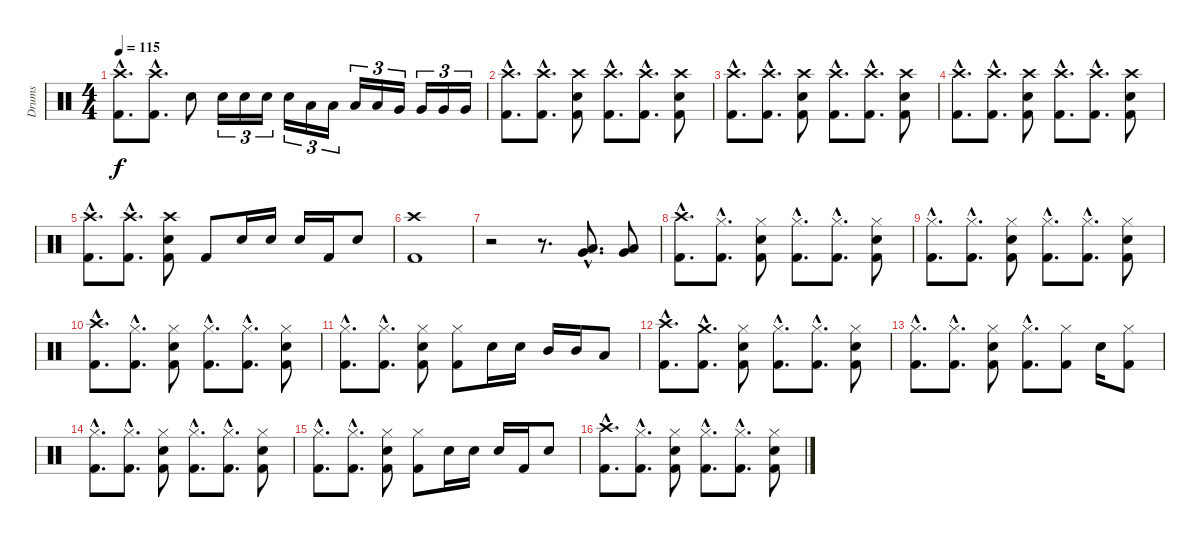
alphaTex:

\track ("Drums" "Drums") {instrument percussion}
\staff {score}
\articulation defaults
\ts (4 4)
\tempo 115
\clef neutral
\ks c
("Crash high (hit)"{hac} "Kick (hit) 2"{hac}).8{d dy f} ("Crash high (hit)"{hac} "Kick (hit) 2"{hac}).8{d} "Electric Snare (hit)".8 "Electric Snare (hit)".16{tu (3 2)} "Electric Snare (hit)".16{tu (3 2)} "Electric Snare (hit)".16{tu (3 2)} "Electric Snare (hit)".16{tu (3 2)} "Low Tom (hit)".16{tu (3 2)} "Low Tom (hit)".16{tu (3 2)} "Low Tom (hit)".16{tu (3 2)} "Low Tom (hit)".16{tu (3 2)} "Very Low Tom (hit)".16{tu (3 2)} "Very Low Tom (hit)".16{tu (3 2)} "Very Low Tom (hit)".16{tu (3 2)} "Very Low Tom (hit)".16{tu (3 2)} |
("Crash high (hit)"{hac} "Kick (hit) 2"{hac}).8{d} ("Crash high (hit)"{hac} "Kick (hit) 2"{hac}).8{d} ("Crash high (hit)" "Electric Snare (hit)" "Kick (hit) 2").8 ("Crash high (hit)"{hac} "Kick (hit) 2"{hac}).8{d} ("Crash high (hit)"{hac} "Kick (hit) 2"{hac}).8{d} ("Crash high (hit)" "Electric Snare (hit)" "Kick (hit) 2").8 |
("Crash high (hit)"{hac} "Kick (hit) 2"{hac}).8{d} ("Crash high (hit)"{hac} "Kick (hit) 2"{hac}).8{d} ("Crash high (hit)" "Electric Snare (hit)" "Kick (hit) 2").8 ("Crash high (hit)"{hac} "Kick (hit) 2"{hac}).8{d} ("Crash high (hit)"{hac} "Kick (hit) 2"{hac}).8{d} ("Crash high (hit)" "Electric Snare (hit)" "Kick (hit) 2").8 |
("Crash high (hit)"{hac} "Kick (hit) 2"{hac}).8{d} ("Crash high (hit)"{hac} "Kick (hit) 2"{hac}).8{d} ("Crash high (hit)" "Electric Snare (hit)" "Kick (hit) 2").8 ("Crash high (hit)"{hac} "Kick (hit) 2"{hac}).8{d} ("Crash high (hit)"{hac} "Kick (hit) 2"{hac}).8{d} ("Crash high (hit)" "Electric Snare (hit)" "Kick (hit) 2").8 |
("Crash high (hit)"{hac} "Kick (hit) 2"{hac}).8{d} ("Crash high (hit)"{hac} "Kick (hit) 2"{hac}).8{d} ("Crash high (hit)" "Electric Snare (hit)" "Kick (hit) 2").8 "Kick (hit) 2".8 "Electric Snare (hit)".16 "Electric Snare (hit)".16 "Electric Snare (hit)".16 "Kick (hit) 2".16 "Electric Snare (hit)".8 |
("Crash high (hit)" "Kick (hit) 2").1 |
r.2 r.8{d} ("Low Tom (hit)"{hac} "Very Low Tom (hit)"{hac}).8{d} ("Low Tom (hit)" "Very Low Tom (hit)").8 |
("Crash high (hit)"{hac} "Kick (hit) 2"{hac}).8{d} ("Hi-Hat (closed)"{hac} "Kick (hit) 2"{hac}).8{d} ("Hi-Hat (closed)" "Electric Snare (hit)" "Kick (hit) 2").8 ("Hi-Hat (closed)"{hac} "Kick (hit) 2"{hac}).8{d} ("Hi-Hat (closed)"{hac} "Kick (hit) 2"{hac}).8{d} ("Hi-Hat (closed)" "Electric Snare (hit)" "Kick (hit) 2").8 |
("Hi-Hat (closed)"{hac} "Kick (hit) 2"{hac}).8{d} ("Hi-Hat (closed)"{hac} "Kick (hit) 2"{hac}).8{d} ("Hi-Hat (closed)" "Electric Snare (hit)" "Kick (hit) 2").8 ("Hi-Hat (closed)"{hac} "Kick (hit) 2"{hac}).8{d} ("Hi-Hat (closed)"{hac} "Kick (hit) 2"{hac}).8{d} ("Hi-Hat (closed)" "Electric Snare (hit)" "Kick (hit) 2").8 |
("Crash high (hit)"{hac} "Kick (hit) 2"{hac}).8{d} ("Hi-Hat (closed)"{hac} "Kick (hit) 2"{hac}).8{d} ("Hi-Hat (closed)" "Electric Snare (hit)" "Kick (hit) 2").8 ("Hi-Hat (closed)"{hac} "Kick (hit) 2"{hac}).8{d} ("Hi-Hat (closed)"{hac} "Kick (hit) 2"{hac}).8{d} ("Hi-Hat (closed)" "Electric Snare (hit)" "Kick (hit) 2").8 |
("Hi-Hat (closed)"{hac} "Kick (hit) 2"{hac}).8{d} ("Hi-Hat (closed)"{hac} "Kick (hit) 2"{hac}).8{d} ("Hi-Hat (closed)" "Electric Snare (hit)" "Kick (hit) 2").8 ("Hi-Hat (closed)" "Kick (hit) 2").8 "Electric Snare (hit)".16 "Electric Snare (hit)".16 "Mid Tom (hit)".16 "Mid Tom (hit)".16 "Low Tom (hit)".8 |
("Crash high (hit)"{hac} "Kick (hit) 2"{hac}).8{d} ("Crash medium (hit)"{hac} "Kick (hit) 2"{hac}).8{d} ("Hi-Hat (closed)" "Electric Snare (hit)" "Kick (hit) 2").8 ("Hi-Hat (closed)"{hac} "Kick (hit) 2"{hac}).8{d} ("Hi-Hat (closed)"{hac} "Kick (hit) 2"{hac}).8{d} ("Hi-Hat (closed)" "Electric Snare (hit)" "Kick (hit) 2").8 |
("Hi-Hat (closed)"{hac} "Kick (hit) 2"{hac}).8{d} ("Hi-Hat (closed)"{hac} "Kick (hit) 2"{hac}).8{d} ("Hi-Hat (closed)" "Electric Snare (hit)" "Kick (hit) 2").8 ("Hi-Hat (closed)"{hac} "Kick (hit) 2"{hac}).8{d} ("Hi-Hat (closed)" "Kick (hit) 2").8 "Electric Snare (hit)".16 ("Hi-Hat (closed)" "Kick (hit) 2").8 |
("Hi-Hat (closed)"{hac} "Kick (hit) 2"{hac}).8{d} ("Hi-Hat (closed)"{hac} "Kick (hit) 2"{hac}).8{d} ("Hi-Hat (closed)" "Electric Snare (hit)" "Kick (hit) 2").8 ("Hi-Hat (closed)"{hac} "Kick (hit) 2"{hac}).8{d} ("Hi-Hat (closed)"{hac} "Kick (hit) 2"{hac}).8{d} ("Hi-Hat (closed)" "Electric Snare (hit)" "Kick (hit) 2").8 |
("Hi-Hat (closed)"{hac} "Kick (hit) 2"{hac}).8{d} ("Hi-Hat (closed)"{hac} "Kick (hit) 2"{hac}).8{d} ("Hi-Hat (closed)" "Electric Snare (hit)" "Kick (hit) 2").8 ("Hi-Hat (closed)" "Kick (hit) 2").8 "Electric Snare (hit)".16 "Electric Snare (hit)".16 "Electric Snare (hit)".16 "Kick (hit) 2".16 "Electric Snare (hit)".8 |
("Crash high (hit)"{hac} "Kick (hit) 2"{hac}).8{d} ("Hi-Hat (closed)"{hac} "Kick (hit) 2"{hac}).8{d} ("Hi-Hat (closed)" "Electric Snare (hit)" "Kick (hit) 2").8 ("Hi-Hat (closed)"{hac} "Kick (hit) 2"{hac}).8{d} ("Hi-Hat (closed)"{hac} "Kick (hit) 2"{hac}).8{d} ("Hi-Hat (closed)" "Electric Snare (hit)" "Kick (hit) 2").8
